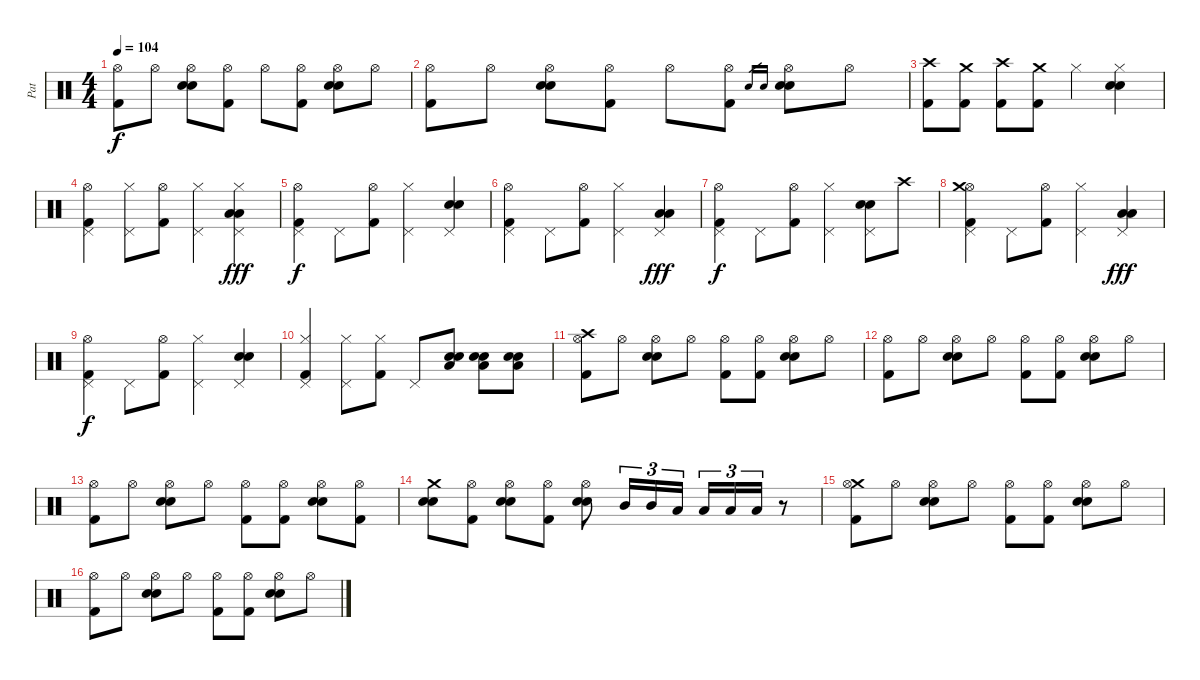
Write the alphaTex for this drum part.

\track ("Pat" "Pat") {instrument percussion}
\staff {score}
\articulation defaults
\ts (4 4)
\tempo 104
\clef neutral
\ks c
("Hi-Hat (open)" "Kick (hit) 2").8{dy f} "Hi-Hat (open)".8 ("Hi-Hat (open)" "Electric Snare (hit)" "Snare (hit) 2").8 ("Hi-Hat (open)" "Kick (hit) 2").8 "Hi-Hat (open)".8 ("Hi-Hat (open)" "Kick (hit) 2").8 ("Hi-Hat (open)" "Electric Snare (hit)" "Snare (hit) 2").8 "Hi-Hat (open)".8 |
("Hi-Hat (open)" "Kick (hit) 2").8 "Hi-Hat (open)".8 ("Hi-Hat (open)" "Electric Snare (hit)" "Snare (hit) 2").8 ("Hi-Hat (open)" "Kick (hit) 2").8 "Hi-Hat (open)".8 ("Hi-Hat (open)" "Kick (hit) 2").8 "Electric Snare (hit)".16{gr} "Snare (hit) 2".16{gr} ("Hi-Hat (open)" "Electric Snare (hit)" "Snare (hit) 2").8 "Hi-Hat (open)".8 |
("Crash high (hit)" "Kick (hit) 2").8 ("Crash medium (hit)" "Kick (hit) 2").8 ("Crash high (hit)" "Kick (hit) 2").8 ("Crash medium (hit)" "Kick (hit) 2").8 "Hi-Hat (closed)".4 ("Hi-Hat (closed)" "Electric Snare (hit)" "Snare (hit) 2").4 |
("Pedal Hi-Hat (hit)" "Hi-Hat (open)" "Kick (hit) 2").4 ("Pedal Hi-Hat (hit)" "Hi-Hat (closed)").8 ("Hi-Hat (open)" "Kick (hit) 2").8 ("Pedal Hi-Hat (hit)" "Hi-Hat (closed)").4 ("Pedal Hi-Hat (hit)" "Hi-Hat (closed)" "Low Floor Tom (hit)" "Low Floor Tom (hit)").4{dy fff} |
("Pedal Hi-Hat (hit)" "Hi-Hat (open)" "Kick (hit) 2").4{dy f} "Pedal Hi-Hat (hit)".8 ("Hi-Hat (open)" "Kick (hit) 2").8 ("Pedal Hi-Hat (hit)" "Hi-Hat (closed)").4 ("Pedal Hi-Hat (hit)" "Electric Snare (hit)" "Snare (hit) 2").4 |
("Pedal Hi-Hat (hit)" "Hi-Hat (open)" "Kick (hit) 2").4 "Pedal Hi-Hat (hit)".8 ("Hi-Hat (open)" "Kick (hit) 2").8 ("Pedal Hi-Hat (hit)" "Hi-Hat (closed)").4 ("Pedal Hi-Hat (hit)" "Low Floor Tom (hit)" "Low Floor Tom (hit)").4{dy fff} |
("Pedal Hi-Hat (hit)" "Hi-Hat (open)" "Kick (hit) 2").4{dy f} "Pedal Hi-Hat (hit)".8 ("Hi-Hat (open)" "Kick (hit) 2").8 ("Pedal Hi-Hat (hit)" "Hi-Hat (closed)").4 ("Pedal Hi-Hat (hit)" "Electric Snare (hit)" "Snare (hit) 2").8 "Crash high (hit)".8 |
("Pedal Hi-Hat (hit)" "Hi-Hat (open)" "Crash medium (hit)" "Kick (hit) 2").4 "Pedal Hi-Hat (hit)".8 ("Hi-Hat (open)" "Kick (hit) 2").8 ("Pedal Hi-Hat (hit)" "Hi-Hat (closed)").4 ("Pedal Hi-Hat (hit)" "Low Floor Tom (hit)" "Low Floor Tom (hit)").4{dy fff} |
("Pedal Hi-Hat (hit)" "Hi-Hat (open)" "Kick (hit) 2").4{dy f} "Pedal Hi-Hat (hit)".8 ("Hi-Hat (open)" "Kick (hit) 2").8 ("Pedal Hi-Hat (hit)" "Hi-Hat (closed)").4 ("Pedal Hi-Hat (hit)" "Electric Snare (hit)" "Snare (hit) 2").4 |
("Pedal Hi-Hat (hit)" "Hi-Hat (closed)" "Kick (hit) 2").4 ("Pedal Hi-Hat (hit)" "Hi-Hat (closed)").8 ("Hi-Hat (closed)" "Kick (hit) 2").8 "Pedal Hi-Hat (hit)".8 ("Electric Snare (hit)" "Snare (hit) 2" "Low Tom (hit)").8 ("Electric Snare (hit)" "Snare (hit) 2" "Low Tom (hit)").8 ("Electric Snare (hit)" "Snare (hit) 2" "Low Tom (hit)").8 |
("Crash high (hit)" "Hi-Hat (open)" "Kick (hit) 2").8 "Hi-Hat (open)".8 ("Hi-Hat (open)" "Electric Snare (hit)" "Snare (hit) 2").8 "Hi-Hat (open)".8 ("Hi-Hat (open)" "Kick (hit) 2").8 ("Hi-Hat (open)" "Kick (hit) 2").8 ("Hi-Hat (open)" "Electric Snare (hit)" "Snare (hit) 2").8 "Hi-Hat (open)".8 |
("Hi-Hat (open)" "Kick (hit) 2").8 "Hi-Hat (open)".8 ("Hi-Hat (open)" "Electric Snare (hit)" "Snare (hit) 2").8 "Hi-Hat (open)".8 ("Hi-Hat (open)" "Kick (hit) 2").8 ("Hi-Hat (open)" "Kick (hit) 2").8 ("Hi-Hat (open)" "Electric Snare (hit)" "Snare (hit) 2").8 "Hi-Hat (open)".8 |
("Hi-Hat (open)" "Kick (hit) 2").8 "Hi-Hat (open)".8 ("Hi-Hat (open)" "Electric Snare (hit)" "Snare (hit) 2").8 "Hi-Hat (open)".8 ("Hi-Hat (open)" "Kick (hit) 2").8 ("Hi-Hat (open)" "Kick (hit) 2").8 ("Hi-Hat (open)" "Electric Snare (hit)" "Snare (hit) 2").8 ("Hi-Hat (open)" "Kick (hit) 2").8 |
("Crash medium (hit)" "Electric Snare (hit)" "Snare (hit) 2").8 ("Hi-Hat (open)" "Kick (hit) 2").8 ("Hi-Hat (open)" "Electric Snare (hit)" "Snare (hit) 2").8 ("Hi-Hat (open)" "Kick (hit) 2").8 ("Hi-Hat (open)" "Electric Snare (hit)" "Snare (hit) 2").8 "Mid Tom (hit)".16{tu (3 2)} "Mid Tom (hit)".16{tu (3 2)} "Low Tom (hit)".16{tu (3 2)} "Low Tom (hit)".16{tu (3 2)} "Low Floor Tom (hit)".16{tu (3 2)} "Low Floor Tom (hit)".16{tu (3 2)} r.8 |
("Crash medium (hit)" "Hi-Hat (open)" "Kick (hit) 2").8 "Hi-Hat (open)".8 ("Hi-Hat (open)" "Electric Snare (hit)" "Snare (hit) 2").8 "Hi-Hat (open)".8 ("Hi-Hat (open)" "Kick (hit) 2").8 ("Hi-Hat (open)" "Kick (hit) 2").8 ("Hi-Hat (open)" "Electric Snare (hit)" "Snare (hit) 2").8 "Hi-Hat (open)".8 |
("Hi-Hat (open)" "Kick (hit) 2").8 "Hi-Hat (open)".8 ("Hi-Hat (open)" "Electric Snare (hit)" "Snare (hit) 2").8 "Hi-Hat (open)".8 ("Hi-Hat (open)" "Kick (hit) 2").8 ("Hi-Hat (open)" "Kick (hit) 2").8 ("Hi-Hat (open)" "Electric Snare (hit)" "Snare (hit) 2").8 "Hi-Hat (open)".8
